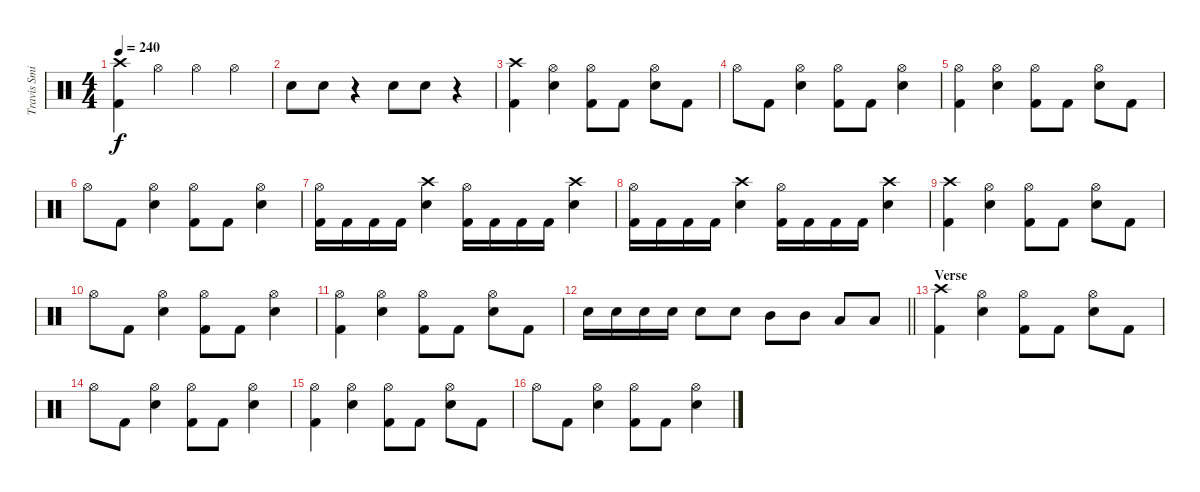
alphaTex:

\track ("Travis Smith" "Travis Smi") {instrument percussion}
\staff {score}
\articulation defaults
\ts (4 4)
\tempo 240
\clef neutral
\ks c
("Kick (hit) 2" "Crash high (hit)").4{dy f} "Hi-Hat (open)".4 "Hi-Hat (open)".4 "Hi-Hat (open)".4 |
"Snare (hit) 2".8 "Snare (hit) 2".8 r.4 "Snare (hit) 2".8 "Snare (hit) 2".8 r.4 |
("Kick (hit) 2" "Crash high (hit)").4 ("Snare (hit) 2" "Hi-Hat (open)").4 ("Kick (hit) 2" "Hi-Hat (open)").8 "Kick (hit) 2".8 ("Snare (hit) 2" "Hi-Hat (open)").8 "Kick (hit) 2".8 |
"Hi-Hat (open)".8 "Kick (hit) 2".8 ("Snare (hit) 2" "Hi-Hat (open)").4 ("Kick (hit) 2" "Hi-Hat (open)").8 "Kick (hit) 2".8 ("Snare (hit) 2" "Hi-Hat (open)").4 |
("Kick (hit) 2" "Hi-Hat (open)").4 ("Snare (hit) 2" "Hi-Hat (open)").4 ("Kick (hit) 2" "Hi-Hat (open)").8 "Kick (hit) 2".8 ("Snare (hit) 2" "Hi-Hat (open)").8 "Kick (hit) 2".8 |
"Hi-Hat (open)".8 "Kick (hit) 2".8 ("Snare (hit) 2" "Hi-Hat (open)").4 ("Kick (hit) 2" "Hi-Hat (open)").8 "Kick (hit) 2".8 ("Snare (hit) 2" "Hi-Hat (open)").4 |
("Kick (hit) 2" "Hi-Hat (open)").16 "Kick (hit) 2".16 "Kick (hit) 2".16 "Kick (hit) 2".16 ("Snare (hit) 2" "Crash high (hit)").4 ("Kick (hit) 2" "Hi-Hat (open)").16 "Kick (hit) 2".16 "Kick (hit) 2".16 "Kick (hit) 2".16 ("Snare (hit) 2" "Crash high (hit)").4 |
("Kick (hit) 2" "Hi-Hat (open)").16 "Kick (hit) 2".16 "Kick (hit) 2".16 "Kick (hit) 2".16 ("Snare (hit) 2" "Crash high (hit)").4 ("Kick (hit) 2" "Hi-Hat (open)").16 "Kick (hit) 2".16 "Kick (hit) 2".16 "Kick (hit) 2".16 ("Snare (hit) 2" "Crash high (hit)").4 |
("Kick (hit) 2" "Crash high (hit)").4 ("Snare (hit) 2" "Hi-Hat (open)").4 ("Kick (hit) 2" "Hi-Hat (open)").8 "Kick (hit) 2".8 ("Snare (hit) 2" "Hi-Hat (open)").8 "Kick (hit) 2".8 |
"Hi-Hat (open)".8 "Kick (hit) 2".8 ("Snare (hit) 2" "Hi-Hat (open)").4 ("Kick (hit) 2" "Hi-Hat (open)").8 "Kick (hit) 2".8 ("Snare (hit) 2" "Hi-Hat (open)").4 |
("Kick (hit) 2" "Hi-Hat (open)").4 ("Snare (hit) 2" "Hi-Hat (open)").4 ("Kick (hit) 2" "Hi-Hat (open)").8 "Kick (hit) 2".8 ("Snare (hit) 2" "Hi-Hat (open)").8 "Kick (hit) 2".8 |
\barLineRight lightlight "Snare (hit) 2".16 "Snare (hit) 2".16 "Snare (hit) 2".16 "Snare (hit) 2".16 "Snare (hit) 2".8 "Snare (hit) 2".8 "Mid Tom (hit)".8 "Mid Tom (hit)".8 "Low Tom (hit)".8 "Low Tom (hit)".8
|
\section ("" "Verse")
("Kick (hit) 2" "Crash high (hit)").4 ("Snare (hit) 2" "Hi-Hat (open)").4 ("Kick (hit) 2" "Hi-Hat (open)").8 "Kick (hit) 2".8 ("Snare (hit) 2" "Hi-Hat (open)").8 "Kick (hit) 2".8 |
"Hi-Hat (open)".8 "Kick (hit) 2".8 ("Snare (hit) 2" "Hi-Hat (open)").4 ("Kick (hit) 2" "Hi-Hat (open)").8 "Kick (hit) 2".8 ("Snare (hit) 2" "Hi-Hat (open)").4 |
("Kick (hit) 2" "Hi-Hat (open)").4 ("Snare (hit) 2" "Hi-Hat (open)").4 ("Kick (hit) 2" "Hi-Hat (open)").8 "Kick (hit) 2".8 ("Snare (hit) 2" "Hi-Hat (open)").8 "Kick (hit) 2".8 |
"Hi-Hat (open)".8 "Kick (hit) 2".8 ("Snare (hit) 2" "Hi-Hat (open)").4 ("Kick (hit) 2" "Hi-Hat (open)").8 "Kick (hit) 2".8 ("Snare (hit) 2" "Hi-Hat (open)").4
